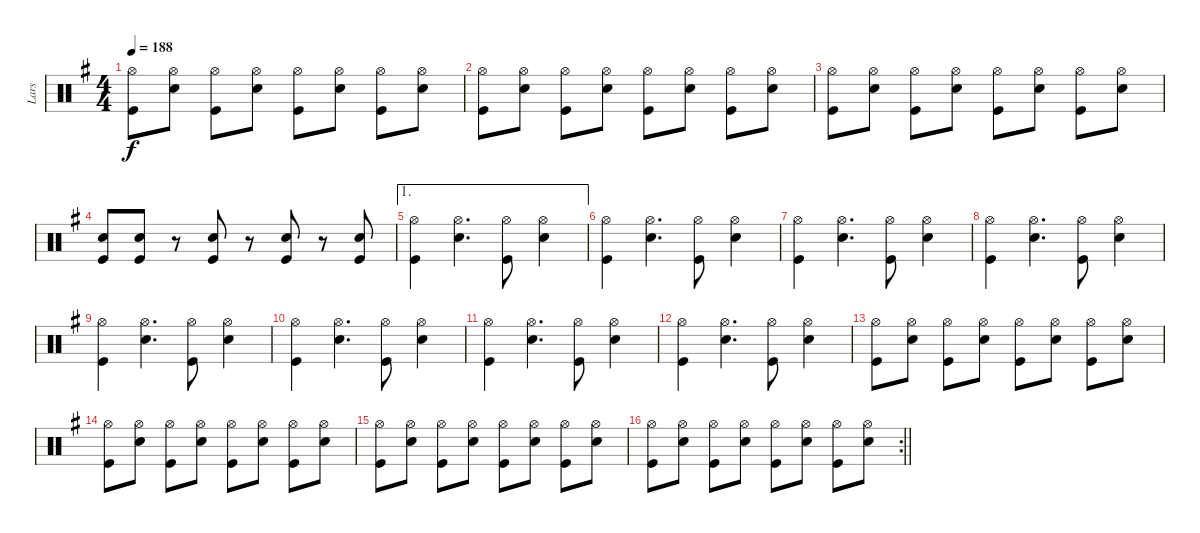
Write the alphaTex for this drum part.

\track ("Lars" "Lars") {instrument percussion}
\staff {score}
\articulation defaults
\ts (4 4)
\tempo 188
\clef neutral
\ks eminor
("Hi-Hat (open)" "Kick (hit)").8{dy f} ("Hi-Hat (open)" "Snare (hit) 2").8 ("Hi-Hat (open)" "Kick (hit)").8 ("Hi-Hat (open)" "Snare (hit) 2").8 ("Hi-Hat (open)" "Kick (hit)").8 ("Hi-Hat (open)" "Snare (hit) 2").8 ("Hi-Hat (open)" "Kick (hit)").8 ("Hi-Hat (open)" "Snare (hit) 2").8 |
("Hi-Hat (open)" "Kick (hit)").8 ("Hi-Hat (open)" "Snare (hit) 2").8 ("Hi-Hat (open)" "Kick (hit)").8 ("Hi-Hat (open)" "Snare (hit) 2").8 ("Hi-Hat (open)" "Kick (hit)").8 ("Hi-Hat (open)" "Snare (hit) 2").8 ("Hi-Hat (open)" "Kick (hit)").8 ("Snare (hit) 2" "Hi-Hat (open)").8 |
("Hi-Hat (open)" "Kick (hit)").8 ("Hi-Hat (open)" "Snare (hit) 2").8 ("Hi-Hat (open)" "Kick (hit)").8 ("Hi-Hat (open)" "Snare (hit) 2").8 ("Hi-Hat (open)" "Kick (hit)").8 ("Hi-Hat (open)" "Snare (hit) 2").8 ("Hi-Hat (open)" "Kick (hit)").8 ("Snare (hit) 2" "Hi-Hat (open)").8 |
("Kick (hit)" "Snare (hit) 2").8 ("Snare (hit) 2" "Kick (hit)").8 r.8 ("Kick (hit)" "Snare (hit) 2").8 r.8 ("Kick (hit)" "Snare (hit) 2").8 r.8 ("Kick (hit)" "Snare (hit) 2").8 |
\ae 1
("Hi-Hat (open)" "Kick (hit)").4 ("Hi-Hat (open)" "Snare (hit) 2").4{d} ("Hi-Hat (open)" "Kick (hit)").8 ("Hi-Hat (open)" "Snare (hit) 2").4 |
("Hi-Hat (open)" "Kick (hit)").4 ("Hi-Hat (open)" "Snare (hit) 2").4{d} ("Hi-Hat (open)" "Kick (hit)").8 ("Hi-Hat (open)" "Snare (hit) 2").4 |
("Hi-Hat (open)" "Kick (hit)").4 ("Hi-Hat (open)" "Snare (hit) 2").4{d} ("Hi-Hat (open)" "Kick (hit)").8 ("Hi-Hat (open)" "Snare (hit) 2").4 |
("Hi-Hat (open)" "Kick (hit)").4 ("Hi-Hat (open)" "Snare (hit) 2").4{d} ("Hi-Hat (open)" "Kick (hit)").8 ("Hi-Hat (open)" "Snare (hit) 2").4 |
("Hi-Hat (open)" "Kick (hit)").4 ("Hi-Hat (open)" "Snare (hit) 2").4{d} ("Hi-Hat (open)" "Kick (hit)").8 ("Hi-Hat (open)" "Snare (hit) 2").4 |
("Hi-Hat (open)" "Kick (hit)").4 ("Hi-Hat (open)" "Snare (hit) 2").4{d} ("Hi-Hat (open)" "Kick (hit)").8 ("Hi-Hat (open)" "Snare (hit) 2").4 |
("Hi-Hat (open)" "Kick (hit)").4 ("Hi-Hat (open)" "Snare (hit) 2").4{d} ("Hi-Hat (open)" "Kick (hit)").8 ("Hi-Hat (open)" "Snare (hit) 2").4 |
("Hi-Hat (open)" "Kick (hit)").4 ("Hi-Hat (open)" "Snare (hit) 2").4{d} ("Hi-Hat (open)" "Kick (hit)").8 ("Hi-Hat (open)" "Snare (hit) 2").4 |
("Hi-Hat (open)" "Kick (hit)").8 ("Hi-Hat (open)" "Snare (hit) 2").8 ("Hi-Hat (open)" "Kick (hit)").8 ("Hi-Hat (open)" "Snare (hit) 2").8 ("Hi-Hat (open)" "Kick (hit)").8 ("Hi-Hat (open)" "Snare (hit) 2").8 ("Hi-Hat (open)" "Kick (hit)").8 ("Hi-Hat (open)" "Snare (hit) 2").8 |
("Hi-Hat (open)" "Kick (hit)").8 ("Hi-Hat (open)" "Snare (hit) 2").8 ("Hi-Hat (open)" "Kick (hit)").8 ("Hi-Hat (open)" "Snare (hit) 2").8 ("Hi-Hat (open)" "Kick (hit)").8 ("Hi-Hat (open)" "Snare (hit) 2").8 ("Hi-Hat (open)" "Kick (hit)").8 ("Snare (hit) 2" "Hi-Hat (open)").8 |
("Hi-Hat (open)" "Kick (hit)").8 ("Hi-Hat (open)" "Snare (hit) 2").8 ("Hi-Hat (open)" "Kick (hit)").8 ("Hi-Hat (open)" "Snare (hit) 2").8 ("Hi-Hat (open)" "Kick (hit)").8 ("Hi-Hat (open)" "Snare (hit) 2").8 ("Hi-Hat (open)" "Kick (hit)").8 ("Snare (hit) 2" "Hi-Hat (open)").8 |
\rc 2
\barLineRight lightlight
("Hi-Hat (open)" "Kick (hit)").8 ("Hi-Hat (open)" "Snare (hit) 2").8 ("Hi-Hat (open)" "Kick (hit)").8 ("Hi-Hat (open)" "Snare (hit) 2").8 ("Hi-Hat (open)" "Kick (hit)").8 ("Hi-Hat (open)" "Snare (hit) 2").8 ("Hi-Hat (open)" "Kick (hit)").8 ("Snare (hit) 2" "Hi-Hat (open)").8
